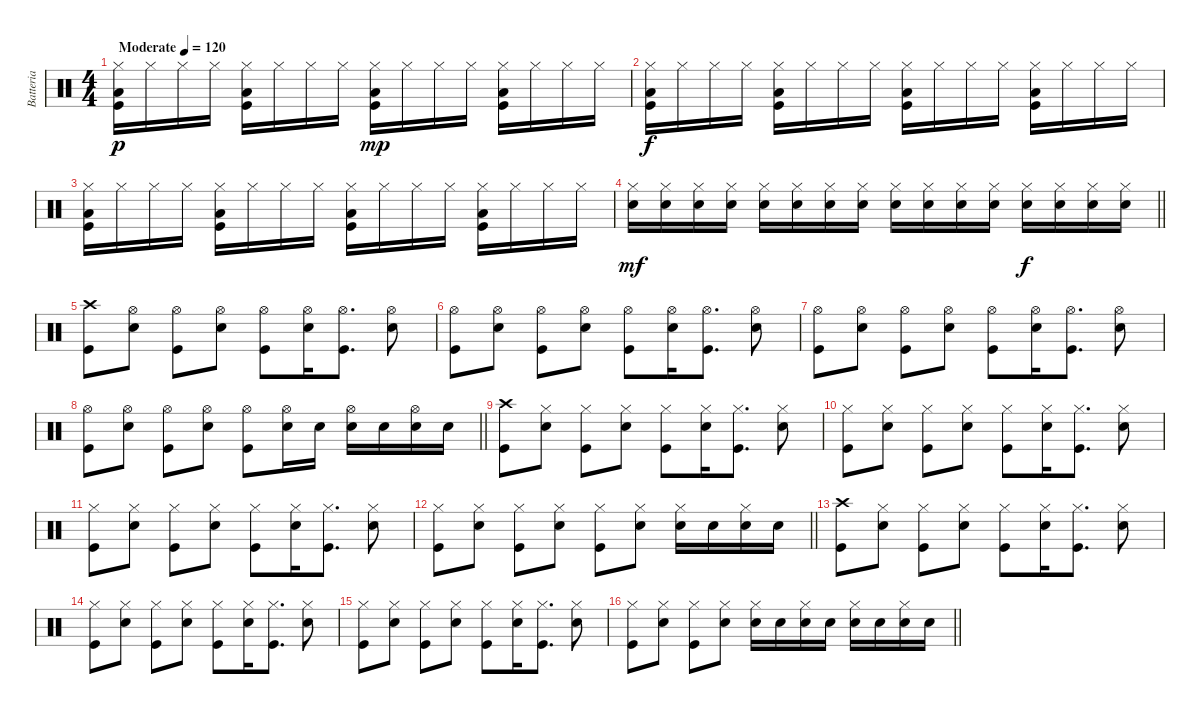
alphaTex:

\track ("Batteria" "Batteria") {instrument percussion}
\staff {score}
\articulation defaults
\ts (4 4)
\tempo (120 "Moderate")
\clef neutral
\ks c
("Low Floor Tom (hit)" "Kick (hit)" "Hi-Hat (closed)").16{dy p} "Hi-Hat (closed)".16 "Hi-Hat (closed)".16 "Hi-Hat (closed)".16 ("Low Floor Tom (hit)" "Kick (hit)" "Hi-Hat (closed)").16 "Hi-Hat (closed)".16 "Hi-Hat (closed)".16 "Hi-Hat (closed)".16 ("Low Floor Tom (hit)" "Kick (hit)" "Hi-Hat (closed)").16{dy mp} "Hi-Hat (closed)".16 "Hi-Hat (closed)".16 "Hi-Hat (closed)".16 ("Low Floor Tom (hit)" "Kick (hit)" "Hi-Hat (closed)").16 "Hi-Hat (closed)".16 "Hi-Hat (closed)".16 "Hi-Hat (closed)".16 |
("Low Floor Tom (hit)" "Kick (hit)" "Hi-Hat (closed)").16{dy f} "Hi-Hat (closed)".16 "Hi-Hat (closed)".16 "Hi-Hat (closed)".16 ("Low Floor Tom (hit)" "Kick (hit)" "Hi-Hat (closed)").16 "Hi-Hat (closed)".16 "Hi-Hat (closed)".16 "Hi-Hat (closed)".16 ("Low Floor Tom (hit)" "Kick (hit)" "Hi-Hat (closed)").16 "Hi-Hat (closed)".16 "Hi-Hat (closed)".16 "Hi-Hat (closed)".16 ("Low Floor Tom (hit)" "Kick (hit)" "Hi-Hat (closed)").16 "Hi-Hat (closed)".16 "Hi-Hat (closed)".16 "Hi-Hat (closed)".16 |
("Low Floor Tom (hit)" "Kick (hit)" "Hi-Hat (closed)").16 "Hi-Hat (closed)".16 "Hi-Hat (closed)".16 "Hi-Hat (closed)".16 ("Low Floor Tom (hit)" "Kick (hit)" "Hi-Hat (closed)").16 "Hi-Hat (closed)".16 "Hi-Hat (closed)".16 "Hi-Hat (closed)".16 ("Low Floor Tom (hit)" "Kick (hit)" "Hi-Hat (closed)").16 "Hi-Hat (closed)".16 "Hi-Hat (closed)".16 "Hi-Hat (closed)".16 ("Low Floor Tom (hit)" "Kick (hit)" "Hi-Hat (closed)").16 "Hi-Hat (closed)".16 "Hi-Hat (closed)".16 "Hi-Hat (closed)".16 |
\barLineRight lightlight
("Hi-Hat (closed)" "Snare (hit) 2").16{dy mf} ("Snare (hit) 2" "Hi-Hat (closed)").16 ("Snare (hit) 2" "Hi-Hat (closed)").16 ("Snare (hit) 2" "Hi-Hat (closed)").16 ("Snare (hit) 2" "Hi-Hat (closed)").16 ("Snare (hit) 2" "Hi-Hat (closed)").16 ("Snare (hit) 2" "Hi-Hat (closed)").16 ("Snare (hit) 2" "Hi-Hat (closed)").16 ("Snare (hit) 2" "Hi-Hat (closed)").16 ("Snare (hit) 2" "Hi-Hat (closed)").16 ("Snare (hit) 2" "Hi-Hat (closed)").16 ("Snare (hit) 2" "Hi-Hat (closed)").16 ("Snare (hit) 2" "Hi-Hat (closed)").16{dy f} ("Snare (hit) 2" "Hi-Hat (closed)").16 ("Snare (hit) 2" "Hi-Hat (closed)").16 ("Snare (hit) 2" "Hi-Hat (closed)").16 |
("Kick (hit)" "Crash high (hit)").8 ("Snare (hit) 2" "Hi-Hat (open)").8 ("Kick (hit)" "Hi-Hat (open)").8 ("Snare (hit) 2" "Hi-Hat (open)").8 ("Kick (hit)" "Hi-Hat (open)").8 ("Snare (hit) 2" "Hi-Hat (open)").16 ("Kick (hit)" "Hi-Hat (open)").8{d} ("Snare (hit) 2" "Hi-Hat (open)").8 |
("Kick (hit)" "Hi-Hat (open)").8 ("Snare (hit) 2" "Hi-Hat (open)").8 ("Kick (hit)" "Hi-Hat (open)").8 ("Snare (hit) 2" "Hi-Hat (open)").8 ("Kick (hit)" "Hi-Hat (open)").8 ("Snare (hit) 2" "Hi-Hat (open)").16 ("Kick (hit)" "Hi-Hat (open)").8{d} ("Snare (hit) 2" "Hi-Hat (open)").8 |
("Kick (hit)" "Hi-Hat (open)").8 ("Snare (hit) 2" "Hi-Hat (open)").8 ("Kick (hit)" "Hi-Hat (open)").8 ("Snare (hit) 2" "Hi-Hat (open)").8 ("Kick (hit)" "Hi-Hat (open)").8 ("Snare (hit) 2" "Hi-Hat (open)").16 ("Kick (hit)" "Hi-Hat (open)").8{d} ("Snare (hit) 2" "Hi-Hat (open)").8 |
\barLineRight lightlight
("Kick (hit)" "Hi-Hat (open)").8 ("Snare (hit) 2" "Hi-Hat (open)").8 ("Kick (hit)" "Hi-Hat (open)").8 ("Snare (hit) 2" "Hi-Hat (open)").8 ("Kick (hit)" "Hi-Hat (open)").8 ("Snare (hit) 2" "Hi-Hat (open)").16 "Snare (hit) 2".16 ("Snare (hit) 2" "Hi-Hat (open)").16 "Snare (hit) 2".16 ("Snare (hit) 2" "Hi-Hat (open)").16 "Snare (hit) 2".16 |
("Kick (hit)" "Crash high (hit)").8 ("Snare (hit) 2" "Hi-Hat (closed)").8 ("Kick (hit)" "Hi-Hat (closed)").8 ("Snare (hit) 2" "Hi-Hat (closed)").8 ("Kick (hit)" "Hi-Hat (closed)").8 ("Snare (hit) 2" "Hi-Hat (closed)").16 ("Kick (hit)" "Hi-Hat (closed)").8{d} ("Snare (hit) 2" "Hi-Hat (closed)").8 |
("Kick (hit)" "Hi-Hat (closed)").8 ("Snare (hit) 2" "Hi-Hat (closed)").8 ("Kick (hit)" "Hi-Hat (closed)").8 ("Snare (hit) 2" "Hi-Hat (closed)").8 ("Kick (hit)" "Hi-Hat (closed)").8 ("Snare (hit) 2" "Hi-Hat (closed)").16 ("Kick (hit)" "Hi-Hat (closed)").8{d} ("Snare (hit) 2" "Hi-Hat (closed)").8 |
("Kick (hit)" "Hi-Hat (closed)").8 ("Snare (hit) 2" "Hi-Hat (closed)").8 ("Kick (hit)" "Hi-Hat (closed)").8 ("Snare (hit) 2" "Hi-Hat (closed)").8 ("Kick (hit)" "Hi-Hat (closed)").8 ("Snare (hit) 2" "Hi-Hat (closed)").16 ("Kick (hit)" "Hi-Hat (closed)").8{d} ("Snare (hit) 2" "Hi-Hat (closed)").8 |
\barLineRight lightlight
("Kick (hit)" "Hi-Hat (closed)").8 ("Snare (hit) 2" "Hi-Hat (closed)").8 ("Kick (hit)" "Hi-Hat (closed)").8 ("Snare (hit) 2" "Hi-Hat (closed)").8 ("Kick (hit)" "Hi-Hat (closed)").8 ("Snare (hit) 2" "Hi-Hat (closed)").8 ("Snare (hit) 2" "Hi-Hat (closed)").16 "Snare (hit) 2".16 ("Snare (hit) 2" "Hi-Hat (closed)").16 "Snare (hit) 2".16 |
("Kick (hit)" "Crash high (hit)").8 ("Snare (hit) 2" "Hi-Hat (closed)").8 ("Kick (hit)" "Hi-Hat (closed)").8 ("Snare (hit) 2" "Hi-Hat (closed)").8 ("Kick (hit)" "Hi-Hat (closed)").8 ("Snare (hit) 2" "Hi-Hat (closed)").16 ("Kick (hit)" "Hi-Hat (closed)").8{d} ("Snare (hit) 2" "Hi-Hat (closed)").8 |
("Kick (hit)" "Hi-Hat (closed)").8 ("Snare (hit) 2" "Hi-Hat (closed)").8 ("Kick (hit)" "Hi-Hat (closed)").8 ("Snare (hit) 2" "Hi-Hat (closed)").8 ("Kick (hit)" "Hi-Hat (closed)").8 ("Snare (hit) 2" "Hi-Hat (closed)").16 ("Kick (hit)" "Hi-Hat (closed)").8{d} ("Snare (hit) 2" "Hi-Hat (closed)").8 |
("Kick (hit)" "Hi-Hat (closed)").8 ("Snare (hit) 2" "Hi-Hat (closed)").8 ("Kick (hit)" "Hi-Hat (closed)").8 ("Snare (hit) 2" "Hi-Hat (closed)").8 ("Kick (hit)" "Hi-Hat (closed)").8 ("Snare (hit) 2" "Hi-Hat (closed)").16 ("Kick (hit)" "Hi-Hat (closed)").8{d} ("Snare (hit) 2" "Hi-Hat (closed)").8 |
\barLineRight lightlight
("Kick (hit)" "Hi-Hat (closed)").8 ("Snare (hit) 2" "Hi-Hat (closed)").8 ("Kick (hit)" "Hi-Hat (closed)").8 ("Snare (hit) 2" "Hi-Hat (closed)").8 ("Snare (hit) 2" "Hi-Hat (closed)").16 "Snare (hit) 2".16 ("Snare (hit) 2" "Hi-Hat (closed)").16 "Snare (hit) 2".16 ("Snare (hit) 2" "Hi-Hat (closed)").16 "Snare (hit) 2".16 ("Snare (hit) 2" "Hi-Hat (closed)").16 "Snare (hit) 2".16
